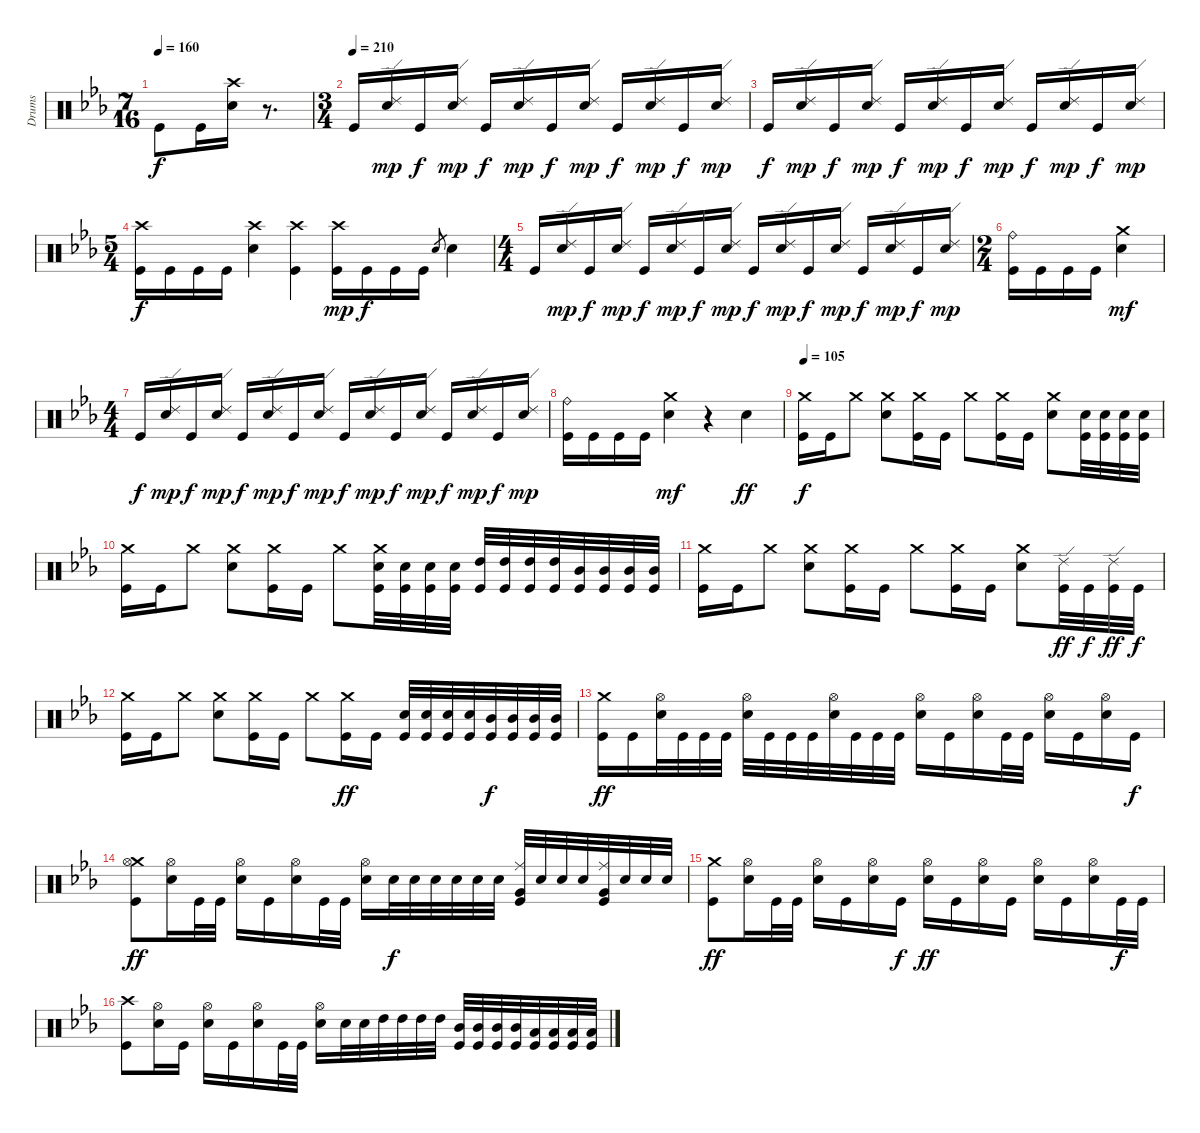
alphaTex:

\track ("Drums" "Drums") {instrument percussion}
\staff {score}
\articulation defaults
\ts (7 16)
\tempo 160
\clef neutral
\ks cminor "Kick (hit)".8{dy f} "Kick (hit)".16
("Crash high (hit)" "Electric Snare (hit)").16 r.8{d} |
\ts (3 4)
\tempo (210)
"Kick (hit)".16 ("Ride (edge) 2" "Electric Snare (hit)").16{dy mp} "Kick (hit)".16{dy f} ("Ride (edge) 2" "Electric Snare (hit)").16{dy mp} "Kick (hit)".16{dy f} ("Ride (edge) 2" "Electric Snare (hit)").16{dy mp} "Kick (hit)".16{dy f} ("Ride (edge) 2" "Electric Snare (hit)").16{dy mp} "Kick (hit)".16{dy f} ("Ride (edge) 2" "Electric Snare (hit)").16{dy mp} "Kick (hit)".16{dy f} ("Ride (edge) 2" "Electric Snare (hit)").16{dy mp} |
"Kick (hit)".16{dy f} ("Ride (edge) 2" "Electric Snare (hit)").16{dy mp} "Kick (hit)".16{dy f} ("Ride (edge) 2" "Electric Snare (hit)").16{dy mp} "Kick (hit)".16{dy f} ("Ride (edge) 2" "Electric Snare (hit)").16{dy mp} "Kick (hit)".16{dy f} ("Ride (edge) 2" "Electric Snare (hit)").16{dy mp} "Kick (hit)".16{dy f} ("Ride (edge) 2" "Electric Snare (hit)").16{dy mp} "Kick (hit)".16{dy f} ("Ride (edge) 2" "Electric Snare (hit)").16{dy mp} |
\ts (5 4)
("Crash high (hit)" "Kick (hit)").16{dy f} "Kick (hit)".16 "Kick (hit)".16 "Kick (hit)".16 ("Crash high (hit)" "Electric Snare (hit)").4 ("Crash high (hit)" "Kick (hit)").4 ("Crash high (hit)" "Kick (hit)").16{dy mp} "Kick (hit)".16{dy f} "Kick (hit)".16 "Kick (hit)".16 "Electric Snare (hit)".8{gr} "Electric Snare (hit)".4 |
\ts (4 4)
"Kick (hit)".16 ("Ride (edge) 2" "Electric Snare (hit)").16{dy mp} "Kick (hit)".16{dy f} ("Ride (edge) 2" "Electric Snare (hit)").16{dy mp} "Kick (hit)".16{dy f} ("Ride (edge) 2" "Electric Snare (hit)").16{dy mp} "Kick (hit)".16{dy f} ("Ride (edge) 2" "Electric Snare (hit)").16{dy mp} "Kick (hit)".16{dy f} ("Ride (edge) 2" "Electric Snare (hit)").16{dy mp} "Kick (hit)".16{dy f} ("Ride (edge) 2" "Electric Snare (hit)").16{dy mp} "Kick (hit)".16{dy f} ("Ride (edge) 2" "Electric Snare (hit)").16{dy mp} "Kick (hit)".16{dy f} ("Ride (edge) 2" "Electric Snare (hit)").16{dy mp} |
\ts (2 4)
("Ride (bell)" "Kick (hit)").16 "Kick (hit)".16 "Kick (hit)".16 "Kick (hit)".16 ("Crash medium (hit)" "Electric Snare (hit)").4{dy mf} |
\ts (4 4)
"Kick (hit)".16{dy f} ("Ride (edge) 2" "Electric Snare (hit)").16{dy mp} "Kick (hit)".16{dy f} ("Ride (edge) 2" "Electric Snare (hit)").16{dy mp} "Kick (hit)".16{dy f} ("Ride (edge) 2" "Electric Snare (hit)").16{dy mp} "Kick (hit)".16{dy f} ("Ride (edge) 2" "Electric Snare (hit)").16{dy mp} "Kick (hit)".16{dy f} ("Ride (edge) 2" "Electric Snare (hit)").16{dy mp} "Kick (hit)".16{dy f} ("Ride (edge) 2" "Electric Snare (hit)").16{dy mp} "Kick (hit)".16{dy f} ("Ride (edge) 2" "Electric Snare (hit)").16{dy mp} "Kick (hit)".16{dy f} ("Ride (edge) 2" "Electric Snare (hit)").16{dy mp} |
("Ride (bell)" "Kick (hit)").16 "Kick (hit)".16 "Kick (hit)".16 "Kick (hit)".16 ("Crash medium (hit)" "Electric Snare (hit)").4{dy mf} r.4 "Electric Snare (hit)".4{dy ff} |
\tempo 105
("Crash medium (hit)" "Kick (hit)").16{dy f} "Kick (hit)".16 "Crash medium (hit)".8 ("Crash medium (hit)" "Electric Snare (hit)").8 ("Crash medium (hit)" "Kick (hit)").16 "Kick (hit)".16 "Crash medium (hit)".8 ("Crash medium (hit)" "Kick (hit)").16 "Kick (hit)".16 ("Crash medium (hit)" "Electric Snare (hit)").8 ("Electric Snare (hit)" "Kick (hit)").32 ("Electric Snare (hit)" "Kick (hit)").32 ("Electric Snare (hit)" "Kick (hit)").32 ("Electric Snare (hit)" "Kick (hit)").32 |
("Crash medium (hit)" "Kick (hit)").16 "Kick (hit)".16 "Crash medium (hit)".8 ("Crash medium (hit)" "Electric Snare (hit)").8 ("Crash medium (hit)" "Kick (hit)").16 "Kick (hit)".16 "Crash medium (hit)".8 ("Crash medium (hit)" "Electric Snare (hit)" "Kick (hit)").32 ("Electric Snare (hit)" "Kick (hit)").32 ("Electric Snare (hit)" "Kick (hit)").32 ("Electric Snare (hit)" "Kick (hit)").32 ("High Tom (hit)" "Kick (hit)").32 ("High Tom (hit)" "Kick (hit)").32 ("High Tom (hit)" "Kick (hit)").32 ("High Tom (hit)" "Kick (hit)").32 ("Mid Tom (hit)" "Kick (hit)").32 ("Mid Tom (hit)" "Kick (hit)").32 ("Mid Tom (hit)" "Kick (hit)").32 ("Mid Tom (hit)" "Kick (hit)").32 |
("Crash medium (hit)" "Kick (hit)").16 "Kick (hit)".16 "Crash medium (hit)".8 ("Crash medium (hit)" "Electric Snare (hit)").8 ("Crash medium (hit)" "Kick (hit)").16 "Kick (hit)".16 "Crash medium (hit)".8 ("Crash medium (hit)" "Kick (hit)").16 "Kick (hit)".16 ("Crash medium (hit)" "Electric Snare (hit)").8 ("Ride (edge) 2" "Kick (hit)").32{dy ff} "Kick (hit)".32{dy f} ("Ride (edge) 2" "Kick (hit)").32{dy ff} "Kick (hit)".32{dy f} |
("Crash medium (hit)" "Kick (hit)").16 "Kick (hit)".16 "Crash medium (hit)".8 ("Crash medium (hit)" "Electric Snare (hit)").8 ("Crash medium (hit)" "Kick (hit)").16 "Kick (hit)".16 "Crash medium (hit)".8 ("Crash medium (hit)" "Kick (hit)").16{dy ff} "Kick (hit)".16 ("Electric Snare (hit)" "Kick (hit)").32 ("Electric Snare (hit)" "Kick (hit)").32 ("Electric Snare (hit)" "Kick (hit)").32 ("Electric Snare (hit)" "Kick (hit)").32 ("Mid Tom (hit)" "Kick (hit)").32{dy f} ("Mid Tom (hit)" "Kick (hit)").32 ("Mid Tom (hit)" "Kick (hit)").32 ("Mid Tom (hit)" "Kick (hit)").32 |
("Crash medium (hit)" "Kick (hit)").16{dy ff} "Kick (hit)".16 ("Hi-Hat (open)" "Electric Snare (hit)").32 "Kick (hit)".32 "Kick (hit)".32 "Kick (hit)".32 ("Hi-Hat (open)" "Electric Snare (hit)").32 "Kick (hit)".32 "Kick (hit)".32 "Kick (hit)".32 ("Hi-Hat (open)" "Electric Snare (hit)").32 "Kick (hit)".32 "Kick (hit)".32 "Kick (hit)".32 ("Hi-Hat (open)" "Electric Snare (hit)").16 "Kick (hit)".16 ("Hi-Hat (open)" "Electric Snare (hit)").16 "Kick (hit)".32 "Kick (hit)".32 ("Hi-Hat (open)" "Electric Snare (hit)").16 "Kick (hit)".16 ("Hi-Hat (open)" "Electric Snare (hit)").16 "Kick (hit)".16{dy f} |
("Crash medium (hit)" "Hi-Hat (open)" "Kick (hit)").8{dy ff} ("Hi-Hat (open)" "Electric Snare (hit)").16 "Kick (hit)".32 "Kick (hit)".32 ("Hi-Hat (open)" "Electric Snare (hit)").16 "Kick (hit)".16 ("Hi-Hat (open)" "Electric Snare (hit)").16 "Kick (hit)".32 "Kick (hit)".32 ("Hi-Hat (open)" "Electric Snare (hit)").16 "Electric Snare (hit)".32{dy f} "Electric Snare (hit)".32 "Electric Snare (hit)".32 "Electric Snare (hit)".32 "Electric Snare (hit)".32 "Electric Snare (hit)".32 ("Ride (middle)" "Very Low Tom (hit)" "Kick (hit)").32 "Electric Snare (hit)".32 "Electric Snare (hit)".32 "Electric Snare (hit)".32 ("Ride (middle)" "Very Low Tom (hit)" "Kick (hit)").32 "Electric Snare (hit)".32 "Electric Snare (hit)".32 "Electric Snare (hit)".32 |
("Crash medium (hit)" "Kick (hit)").8{dy ff} ("Hi-Hat (open)" "Electric Snare (hit)").16 "Kick (hit)".32 "Kick (hit)".32 ("Hi-Hat (open)" "Electric Snare (hit)").16 "Kick (hit)".16 ("Hi-Hat (open)" "Electric Snare (hit)").16 "Kick (hit)".16{dy f} ("Hi-Hat (open)" "Electric Snare (hit)").16{dy ff} "Kick (hit)".16 ("Hi-Hat (open)" "Electric Snare (hit)").16 "Kick (hit)".16 ("Hi-Hat (open)" "Electric Snare (hit)").16 "Kick (hit)".16 ("Hi-Hat (open)" "Electric Snare (hit)").16 "Kick (hit)".32{dy f} "Kick (hit)".32 |
("Crash high (hit)" "Kick (hit)").8 ("Hi-Hat (open)" "Electric Snare (hit)").16 "Kick (hit)".16 ("Hi-Hat (open)" "Electric Snare (hit)").16 "Kick (hit)".16 ("Hi-Hat (open)" "Electric Snare (hit)").16 "Kick (hit)".32 "Kick (hit)".32 ("Hi-Hat (open)" "Electric Snare (hit)").16 "Electric Snare (hit)".32 "Electric Snare (hit)".32 "High Tom (hit)".32 "High Tom (hit)".32 "High Tom (hit)".32 "High Tom (hit)".32 ("Mid Tom (hit)" "Kick (hit)").32 ("Mid Tom (hit)" "Kick (hit)").32 ("Mid Tom (hit)" "Kick (hit)").32 ("Mid Tom (hit)" "Kick (hit)").32 ("Low Tom (hit)" "Kick (hit)").32 ("Low Tom (hit)" "Kick (hit)").32 ("Low Tom (hit)" "Kick (hit)").32 ("Low Tom (hit)" "Kick (hit)").32
